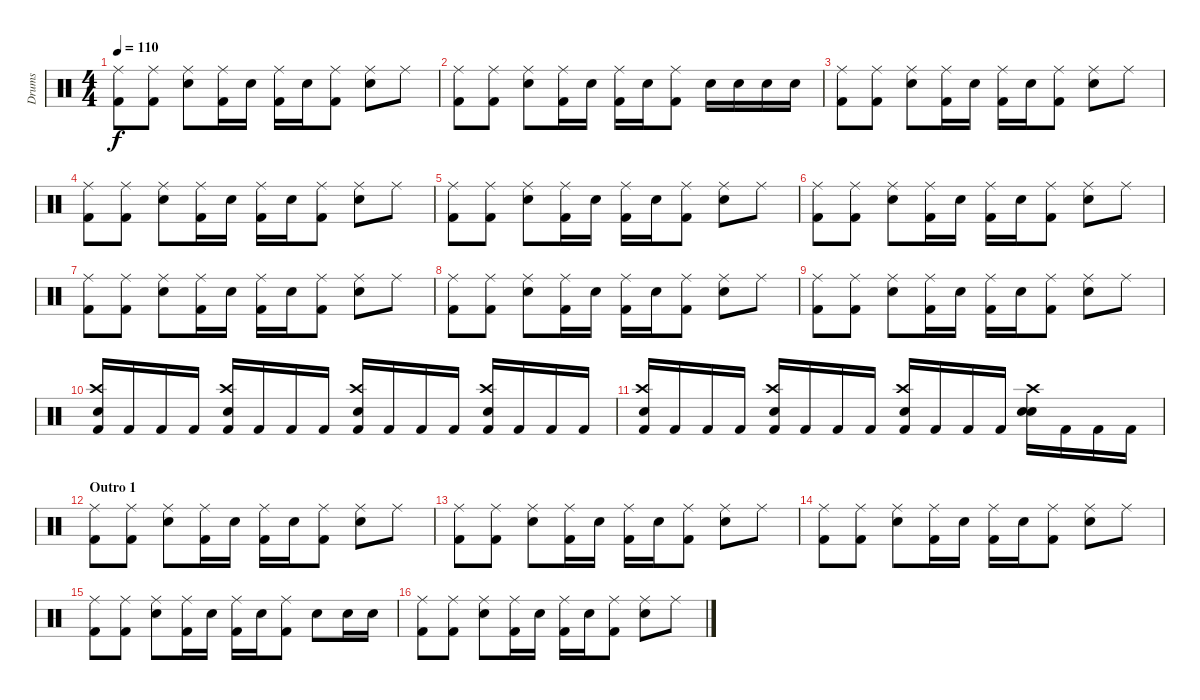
\track ("Drums" "Drums") {instrument percussion}
\staff {score}
\articulation defaults
\ts (4 4)
\tempo 110
\clef neutral
\ks c
("Ride (middle)" "Kick (hit) 2").8{dy f} ("Ride (middle)" "Kick (hit) 2").8 ("Ride (middle)" "Electric Snare (hit)").8 ("Ride (middle)" "Kick (hit) 2").16 "Electric Snare (hit)".16 ("Ride (middle)" "Kick (hit) 2").16 "Electric Snare (hit)".16 ("Ride (middle)" "Kick (hit) 2").8 ("Ride (middle)" "Electric Snare (hit)").8 "Ride (middle)".8 |
("Ride (middle)" "Kick (hit) 2").8 ("Ride (middle)" "Kick (hit) 2").8 ("Ride (middle)" "Electric Snare (hit)").8 ("Ride (middle)" "Kick (hit) 2").16 "Electric Snare (hit)".16 ("Ride (middle)" "Kick (hit) 2").16 "Electric Snare (hit)".16 ("Ride (middle)" "Kick (hit) 2").8 "Electric Snare (hit)".16 "Electric Snare (hit)".16 "Electric Snare (hit)".16 "Electric Snare (hit)".16 |
("Ride (middle)" "Kick (hit) 2").8 ("Ride (middle)" "Kick (hit) 2").8 ("Ride (middle)" "Electric Snare (hit)").8 ("Ride (middle)" "Kick (hit) 2").16 "Electric Snare (hit)".16 ("Ride (middle)" "Kick (hit) 2").16 "Electric Snare (hit)".16 ("Ride (middle)" "Kick (hit) 2").8 ("Ride (middle)" "Electric Snare (hit)").8 "Ride (middle)".8 |
("Ride (middle)" "Kick (hit) 2").8 ("Ride (middle)" "Kick (hit) 2").8 ("Ride (middle)" "Electric Snare (hit)").8 ("Ride (middle)" "Kick (hit) 2").16 "Electric Snare (hit)".16 ("Ride (middle)" "Kick (hit) 2").16 "Electric Snare (hit)".16 ("Ride (middle)" "Kick (hit) 2").8 ("Ride (middle)" "Electric Snare (hit)").8 "Ride (middle)".8 |
("Ride (middle)" "Kick (hit) 2").8 ("Ride (middle)" "Kick (hit) 2").8 ("Ride (middle)" "Electric Snare (hit)").8 ("Ride (middle)" "Kick (hit) 2").16 "Electric Snare (hit)".16 ("Ride (middle)" "Kick (hit) 2").16 "Electric Snare (hit)".16 ("Ride (middle)" "Kick (hit) 2").8 ("Ride (middle)" "Electric Snare (hit)").8 "Ride (middle)".8 |
("Ride (middle)" "Kick (hit) 2").8 ("Ride (middle)" "Kick (hit) 2").8 ("Ride (middle)" "Electric Snare (hit)").8 ("Ride (middle)" "Kick (hit) 2").16 "Electric Snare (hit)".16 ("Ride (middle)" "Kick (hit) 2").16 "Electric Snare (hit)".16 ("Ride (middle)" "Kick (hit) 2").8 ("Ride (middle)" "Electric Snare (hit)").8 "Ride (middle)".8 |
("Ride (middle)" "Kick (hit) 2").8 ("Ride (middle)" "Kick (hit) 2").8 ("Ride (middle)" "Electric Snare (hit)").8 ("Ride (middle)" "Kick (hit) 2").16 "Electric Snare (hit)".16 ("Ride (middle)" "Kick (hit) 2").16 "Electric Snare (hit)".16 ("Ride (middle)" "Kick (hit) 2").8 ("Ride (middle)" "Electric Snare (hit)").8 "Ride (middle)".8 |
("Ride (middle)" "Kick (hit) 2").8 ("Ride (middle)" "Kick (hit) 2").8 ("Ride (middle)" "Electric Snare (hit)").8 ("Ride (middle)" "Kick (hit) 2").16 "Electric Snare (hit)".16 ("Ride (middle)" "Kick (hit) 2").16 "Electric Snare (hit)".16 ("Ride (middle)" "Kick (hit) 2").8 ("Ride (middle)" "Electric Snare (hit)").8 "Ride (middle)".8 |
("Ride (middle)" "Kick (hit) 2").8 ("Ride (middle)" "Kick (hit) 2").8 ("Ride (middle)" "Electric Snare (hit)").8 ("Ride (middle)" "Kick (hit) 2").16 "Electric Snare (hit)".16 ("Ride (middle)" "Kick (hit) 2").16 "Electric Snare (hit)".16 ("Ride (middle)" "Kick (hit) 2").8 ("Ride (middle)" "Electric Snare (hit)").8 "Ride (middle)".8 |
("Crash high (hit)" "Snare (hit) 2" "Kick (hit) 2").16 "Kick (hit) 2".16 "Kick (hit) 2".16 "Kick (hit) 2".16 ("Crash high (hit)" "Snare (hit) 2" "Kick (hit) 2").16 "Kick (hit) 2".16 "Kick (hit) 2".16 "Kick (hit) 2".16 ("Crash high (hit)" "Snare (hit) 2" "Kick (hit) 2").16 "Kick (hit) 2".16 "Kick (hit) 2".16 "Kick (hit) 2".16 ("Crash high (hit)" "Snare (hit) 2" "Kick (hit) 2").16 "Kick (hit) 2".16 "Kick (hit) 2".16 "Kick (hit) 2".16 |
("Crash high (hit)" "Snare (hit) 2" "Kick (hit) 2").16 "Kick (hit) 2".16 "Kick (hit) 2".16 "Kick (hit) 2".16 ("Crash high (hit)" "Snare (hit) 2" "Kick (hit) 2").16 "Kick (hit) 2".16 "Kick (hit) 2".16 "Kick (hit) 2".16 ("Crash high (hit)" "Snare (hit) 2" "Kick (hit) 2").16 "Kick (hit) 2".16 "Kick (hit) 2".16 "Kick (hit) 2".16 ("Crash high (hit)" "Snare (hit) 2" "Snare (hit)").16 "Kick (hit) 2".16 "Kick (hit) 2".16 "Kick (hit) 2".16 |
\section ("" "Outro 1")
("Ride (middle)" "Kick (hit) 2").8 ("Ride (middle)" "Kick (hit) 2").8 ("Ride (middle)" "Electric Snare (hit)").8 ("Ride (middle)" "Kick (hit) 2").16 "Electric Snare (hit)".16 ("Ride (middle)" "Kick (hit) 2").16 "Electric Snare (hit)".16 ("Ride (middle)" "Kick (hit) 2").8 ("Ride (middle)" "Electric Snare (hit)").8 "Ride (middle)".8 |
("Ride (middle)" "Kick (hit) 2").8 ("Ride (middle)" "Kick (hit) 2").8 ("Ride (middle)" "Electric Snare (hit)").8 ("Ride (middle)" "Kick (hit) 2").16 "Electric Snare (hit)".16 ("Ride (middle)" "Kick (hit) 2").16 "Electric Snare (hit)".16 ("Ride (middle)" "Kick (hit) 2").8 ("Ride (middle)" "Electric Snare (hit)").8 "Ride (middle)".8 |
("Ride (middle)" "Kick (hit) 2").8 ("Ride (middle)" "Kick (hit) 2").8 ("Ride (middle)" "Electric Snare (hit)").8 ("Ride (middle)" "Kick (hit) 2").16 "Electric Snare (hit)".16 ("Ride (middle)" "Kick (hit) 2").16 "Electric Snare (hit)".16 ("Ride (middle)" "Kick (hit) 2").8 ("Ride (middle)" "Electric Snare (hit)").8 "Ride (middle)".8 |
("Ride (middle)" "Kick (hit) 2").8 ("Ride (middle)" "Kick (hit) 2").8 ("Ride (middle)" "Electric Snare (hit)").8 ("Ride (middle)" "Kick (hit) 2").16 "Electric Snare (hit)".16 ("Ride (middle)" "Kick (hit) 2").16 "Electric Snare (hit)".16 ("Ride (middle)" "Kick (hit) 2").8 "Electric Snare (hit)".8 "Electric Snare (hit)".16 "Electric Snare (hit)".16 |
("Ride (middle)" "Kick (hit) 2").8 ("Ride (middle)" "Kick (hit) 2").8 ("Ride (middle)" "Electric Snare (hit)").8 ("Ride (middle)" "Kick (hit) 2").16 "Electric Snare (hit)".16 ("Ride (middle)" "Kick (hit) 2").16 "Electric Snare (hit)".16 ("Ride (middle)" "Kick (hit) 2").8 ("Ride (middle)" "Electric Snare (hit)").8 "Ride (middle)".8
